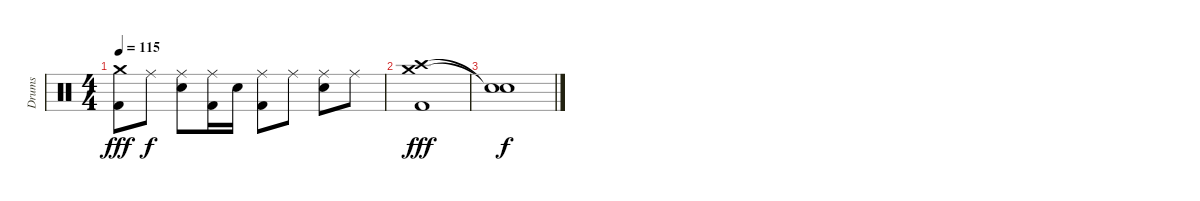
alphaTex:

\track ("Drums" "Drums") {instrument percussion}
\staff {score}
\articulation defaults
\ts (4 4)
\tempo 115
\clef neutral
\ks c
("Crash medium (hit)" "Kick (hit) 2").8{dy fff} "Ride (middle)".8{dy f} ("Ride (middle)" "Electric Snare (hit)").8 ("Ride (middle)" "Kick (hit) 2").16 "Electric Snare (hit)".16 ("Ride (middle)" "Kick (hit) 2").8 "Ride (middle)".8 ("Ride (middle)" "Electric Snare (hit)").8 "Ride (middle)".8 |
("Crash medium (hit)" "Crash high (hit)" "Kick (hit) 2").1{dy fff} |
("Snare (hit)"{t} "Snare (hit)"{t}).1{dy f}
